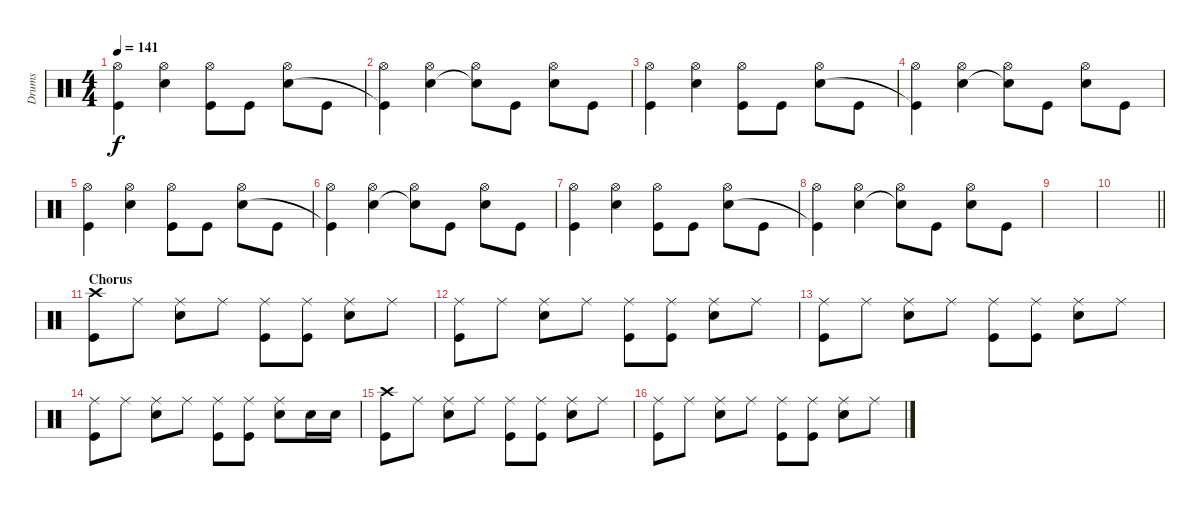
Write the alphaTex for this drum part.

\track ("Drums" "Drums") {instrument percussion}
\staff {score}
\articulation defaults
\ts (4 4)
\tempo 141
\clef neutral
\ks c
("Kick (hit)" "Hi-Hat (open)").4{dy f} ("Snare (hit) 2" "Hi-Hat (open)").4 ("Hi-Hat (open)" "Kick (hit)").8 "Kick (hit)".8 ("Hi-Hat (open)" "Snare (hit) 2").8 "Kick (hit)".8 |
("Hi-Hat (open)" "Kick (hit)"{t}).4 ("Hi-Hat (open)" "Snare (hit) 2").4 ("Hi-Hat (open)" "Snare (hit) 2"{t}).8 "Kick (hit)".8 ("Hi-Hat (open)" "Snare (hit) 2").8 "Kick (hit)".8 |
("Kick (hit)" "Hi-Hat (open)").4 ("Snare (hit) 2" "Hi-Hat (open)").4 ("Hi-Hat (open)" "Kick (hit)").8 "Kick (hit)".8 ("Hi-Hat (open)" "Snare (hit) 2").8 "Kick (hit)".8 |
("Hi-Hat (open)" "Kick (hit)"{t}).4 ("Hi-Hat (open)" "Snare (hit) 2").4 ("Hi-Hat (open)" "Snare (hit) 2"{t}).8 "Kick (hit)".8 ("Hi-Hat (open)" "Snare (hit) 2").8 "Kick (hit)".8 |
("Kick (hit)" "Hi-Hat (open)").4 ("Snare (hit) 2" "Hi-Hat (open)").4 ("Hi-Hat (open)" "Kick (hit)").8 "Kick (hit)".8 ("Hi-Hat (open)" "Snare (hit) 2").8 "Kick (hit)".8 |
("Hi-Hat (open)" "Kick (hit)"{t}).4 ("Hi-Hat (open)" "Snare (hit) 2").4 ("Hi-Hat (open)" "Snare (hit) 2"{t}).8 "Kick (hit)".8 ("Hi-Hat (open)" "Snare (hit) 2").8 "Kick (hit)".8 |
("Kick (hit)" "Hi-Hat (open)").4 ("Snare (hit) 2" "Hi-Hat (open)").4 ("Hi-Hat (open)" "Kick (hit)").8 "Kick (hit)".8 ("Hi-Hat (open)" "Snare (hit) 2").8 "Kick (hit)".8 |
("Hi-Hat (open)" "Kick (hit)"{t}).4 ("Hi-Hat (open)" "Snare (hit) 2").4 ("Hi-Hat (open)" "Snare (hit) 2"{t}).8 "Kick (hit)".8 ("Hi-Hat (open)" "Snare (hit) 2").8 "Kick (hit)".8 |
|
\barLineRight lightlight
|
\section ("" "Chorus")
("Crash high (hit)" "Kick (hit)").8 "Ride (middle)".8 ("Ride (middle)" "Snare (hit) 2").8 "Ride (middle)".8 ("Ride (middle)" "Kick (hit)").8 ("Ride (middle)" "Kick (hit)").8 ("Ride (middle)" "Snare (hit) 2").8 "Ride (middle)".8 |
("Ride (middle)" "Kick (hit)").8 "Ride (middle)".8 ("Ride (middle)" "Snare (hit) 2").8 "Ride (middle)".8 ("Ride (middle)" "Kick (hit)").8 ("Ride (middle)" "Kick (hit)").8 ("Ride (middle)" "Snare (hit) 2").8 "Ride (middle)".8 |
("Ride (middle)" "Kick (hit)").8 "Ride (middle)".8 ("Ride (middle)" "Snare (hit) 2").8 "Ride (middle)".8 ("Ride (middle)" "Kick (hit)").8 ("Ride (middle)" "Kick (hit)").8 ("Ride (middle)" "Snare (hit) 2").8 "Ride (middle)".8 |
("Ride (middle)" "Kick (hit)").8 "Ride (middle)".8 ("Ride (middle)" "Snare (hit) 2").8 "Ride (middle)".8 ("Ride (middle)" "Kick (hit)").8 ("Ride (middle)" "Kick (hit)").8 ("Ride (middle)" "Snare (hit) 2").8 "Snare (hit) 2".16 "Snare (hit) 2".16 |
("Crash high (hit)" "Kick (hit)").8 "Ride (middle)".8 ("Ride (middle)" "Snare (hit) 2").8 "Ride (middle)".8 ("Ride (middle)" "Kick (hit)").8 ("Ride (middle)" "Kick (hit)").8 ("Ride (middle)" "Snare (hit) 2").8 "Ride (middle)".8 |
("Ride (middle)" "Kick (hit)").8 "Ride (middle)".8 ("Ride (middle)" "Snare (hit) 2").8 "Ride (middle)".8 ("Ride (middle)" "Kick (hit)").8 ("Ride (middle)" "Kick (hit)").8 ("Ride (middle)" "Snare (hit) 2").8 "Ride (middle)".8
